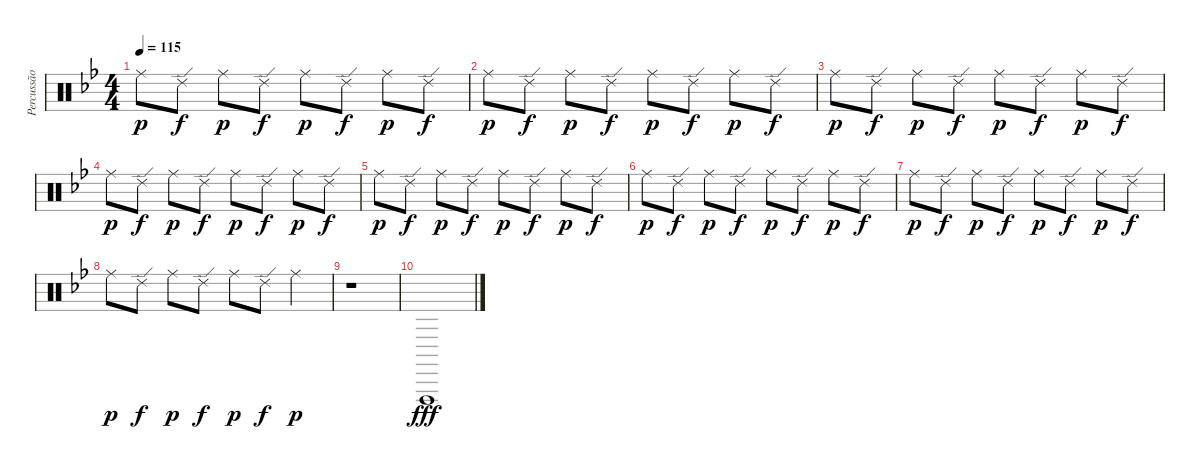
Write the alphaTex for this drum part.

\track ("Percussão" "Percussão") {instrument percussion}
\staff {score}
\articulation defaults
\ts (4 4)
\tempo 115
\clef neutral
\ks bb "Ride (middle)".8{dy p} "Ride (edge) 2".8{dy f} "Ride (middle)".8{dy p} "Ride (edge) 2".8{dy f} "Ride (middle)".8{dy p} "Ride (edge) 2".8{dy f} "Ride (middle)".8{dy p} "Ride (edge) 2".8{dy f}
|
"Ride (middle)".8{dy p} "Ride (edge) 2".8{dy f} "Ride (middle)".8{dy p} "Ride (edge) 2".8{dy f} "Ride (middle)".8{dy p} "Ride (edge) 2".8{dy f} "Ride (middle)".8{dy p} "Ride (edge) 2".8{dy f} |
"Ride (middle)".8{dy p} "Ride (edge) 2".8{dy f} "Ride (middle)".8{dy p} "Ride (edge) 2".8{dy f} "Ride (middle)".8{dy p} "Ride (edge) 2".8{dy f} "Ride (middle)".8{dy p} "Ride (edge) 2".8{dy f} |
"Ride (middle)".8{dy p} "Ride (edge) 2".8{dy f} "Ride (middle)".8{dy p} "Ride (edge) 2".8{dy f} "Ride (middle)".8{dy p} "Ride (edge) 2".8{dy f} "Ride (middle)".8{dy p} "Ride (edge) 2".8{dy f} |
"Ride (middle)".8{dy p} "Ride (edge) 2".8{dy f} "Ride (middle)".8{dy p} "Ride (edge) 2".8{dy f} "Ride (middle)".8{dy p} "Ride (edge) 2".8{dy f} "Ride (middle)".8{dy p} "Ride (edge) 2".8{dy f} |
"Ride (middle)".8{dy p} "Ride (edge) 2".8{dy f} "Ride (middle)".8{dy p} "Ride (edge) 2".8{dy f} "Ride (middle)".8{dy p} "Ride (edge) 2".8{dy f} "Ride (middle)".8{dy p} "Ride (edge) 2".8{dy f} |
"Ride (middle)".8{dy p} "Ride (edge) 2".8{dy f} "Ride (middle)".8{dy p} "Ride (edge) 2".8{dy f} "Ride (middle)".8{dy p} "Ride (edge) 2".8{dy f} "Ride (middle)".8{dy p} "Ride (edge) 2".8{dy f} |
"Ride (middle)".8{dy p} "Ride (edge) 2".8{dy f} "Ride (middle)".8{dy p} "Ride (edge) 2".8{dy f} "Ride (middle)".8{dy p} "Ride (edge) 2".8{dy f} "Ride (middle)".4{dy p} |
r.1 |
"Vibraslap (hit)".1{dy fff}
